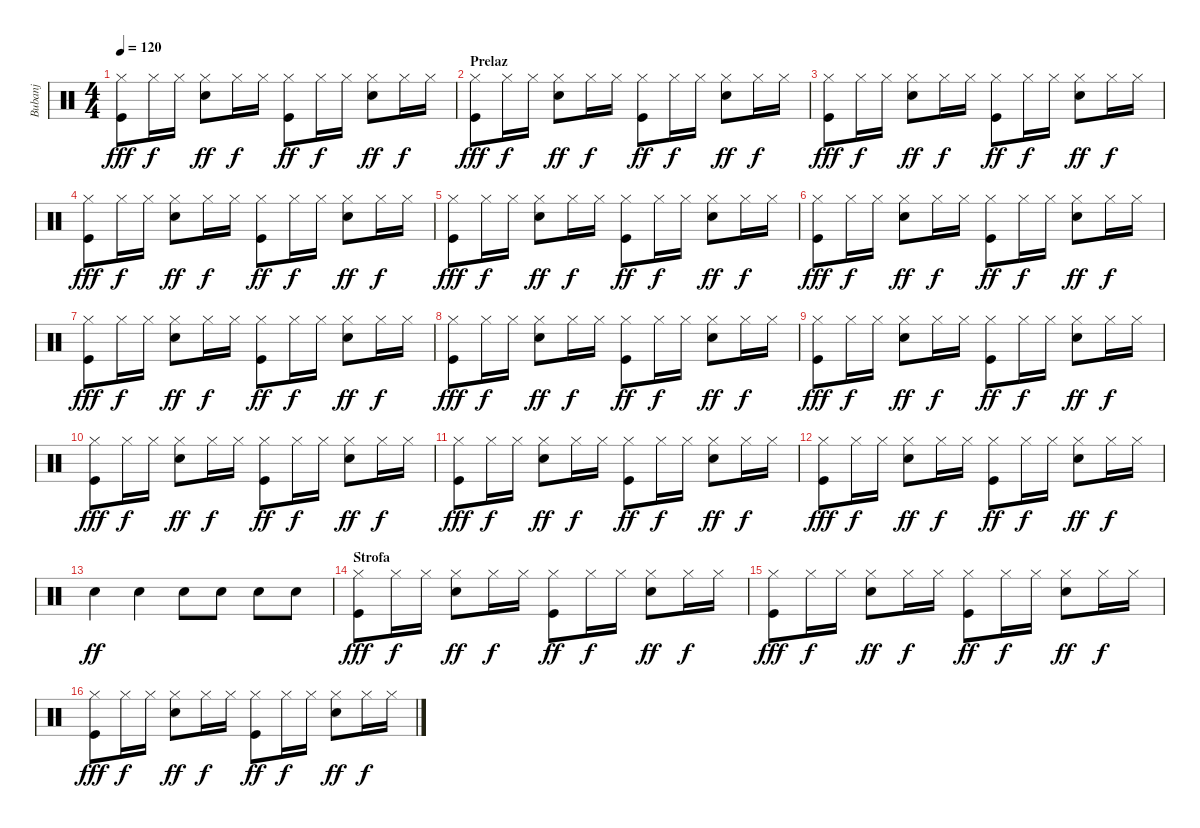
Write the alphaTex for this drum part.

\track ("Bubanj" "Bubanj") {instrument percussion}
\staff {score}
\articulation defaults
\ts (4 4)
\tempo 120
\clef neutral
\ks c
("Kick (hit)" "Hi-Hat (closed)").8{dy fff} "Hi-Hat (closed)".16{dy f} "Hi-Hat (closed)".16 ("Electric Snare (hit)" "Hi-Hat (closed)").8{dy ff} "Hi-Hat (closed)".16{dy f} "Hi-Hat (closed)".16 ("Kick (hit)" "Hi-Hat (closed)").8{dy ff} "Hi-Hat (closed)".16{dy f} "Hi-Hat (closed)".16 ("Electric Snare (hit)" "Hi-Hat (closed)").8{dy ff} "Hi-Hat (closed)".16{dy f} "Hi-Hat (closed)".16 |
\section ("" "Prelaz")
("Kick (hit)" "Hi-Hat (closed)").8{dy fff} "Hi-Hat (closed)".16{dy f} "Hi-Hat (closed)".16 ("Electric Snare (hit)" "Hi-Hat (closed)").8{dy ff} "Hi-Hat (closed)".16{dy f} "Hi-Hat (closed)".16 ("Kick (hit)" "Hi-Hat (closed)").8{dy ff} "Hi-Hat (closed)".16{dy f} "Hi-Hat (closed)".16 ("Electric Snare (hit)" "Hi-Hat (closed)").8{dy ff} "Hi-Hat (closed)".16{dy f} "Hi-Hat (closed)".16 |
("Kick (hit)" "Hi-Hat (closed)").8{dy fff} "Hi-Hat (closed)".16{dy f} "Hi-Hat (closed)".16 ("Electric Snare (hit)" "Hi-Hat (closed)").8{dy ff} "Hi-Hat (closed)".16{dy f} "Hi-Hat (closed)".16 ("Kick (hit)" "Hi-Hat (closed)").8{dy ff} "Hi-Hat (closed)".16{dy f} "Hi-Hat (closed)".16 ("Electric Snare (hit)" "Hi-Hat (closed)").8{dy ff} "Hi-Hat (closed)".16{dy f} "Hi-Hat (closed)".16 |
("Kick (hit)" "Hi-Hat (closed)").8{dy fff} "Hi-Hat (closed)".16{dy f} "Hi-Hat (closed)".16 ("Electric Snare (hit)" "Hi-Hat (closed)").8{dy ff} "Hi-Hat (closed)".16{dy f} "Hi-Hat (closed)".16 ("Kick (hit)" "Hi-Hat (closed)").8{dy ff} "Hi-Hat (closed)".16{dy f} "Hi-Hat (closed)".16 ("Electric Snare (hit)" "Hi-Hat (closed)").8{dy ff} "Hi-Hat (closed)".16{dy f} "Hi-Hat (closed)".16 |
("Kick (hit)" "Hi-Hat (closed)").8{dy fff} "Hi-Hat (closed)".16{dy f} "Hi-Hat (closed)".16 ("Electric Snare (hit)" "Hi-Hat (closed)").8{dy ff} "Hi-Hat (closed)".16{dy f} "Hi-Hat (closed)".16 ("Kick (hit)" "Hi-Hat (closed)").8{dy ff} "Hi-Hat (closed)".16{dy f} "Hi-Hat (closed)".16 ("Electric Snare (hit)" "Hi-Hat (closed)").8{dy ff} "Hi-Hat (closed)".16{dy f} "Hi-Hat (closed)".16 |
("Kick (hit)" "Hi-Hat (closed)").8{dy fff} "Hi-Hat (closed)".16{dy f} "Hi-Hat (closed)".16 ("Electric Snare (hit)" "Hi-Hat (closed)").8{dy ff} "Hi-Hat (closed)".16{dy f} "Hi-Hat (closed)".16 ("Kick (hit)" "Hi-Hat (closed)").8{dy ff} "Hi-Hat (closed)".16{dy f} "Hi-Hat (closed)".16 ("Electric Snare (hit)" "Hi-Hat (closed)").8{dy ff} "Hi-Hat (closed)".16{dy f} "Hi-Hat (closed)".16 |
("Kick (hit)" "Hi-Hat (closed)").8{dy fff} "Hi-Hat (closed)".16{dy f} "Hi-Hat (closed)".16 ("Electric Snare (hit)" "Hi-Hat (closed)").8{dy ff} "Hi-Hat (closed)".16{dy f} "Hi-Hat (closed)".16 ("Kick (hit)" "Hi-Hat (closed)").8{dy ff} "Hi-Hat (closed)".16{dy f} "Hi-Hat (closed)".16 ("Electric Snare (hit)" "Hi-Hat (closed)").8{dy ff} "Hi-Hat (closed)".16{dy f} "Hi-Hat (closed)".16 |
("Kick (hit)" "Hi-Hat (closed)").8{dy fff} "Hi-Hat (closed)".16{dy f} "Hi-Hat (closed)".16 ("Electric Snare (hit)" "Hi-Hat (closed)").8{dy ff} "Hi-Hat (closed)".16{dy f} "Hi-Hat (closed)".16 ("Kick (hit)" "Hi-Hat (closed)").8{dy ff} "Hi-Hat (closed)".16{dy f} "Hi-Hat (closed)".16 ("Electric Snare (hit)" "Hi-Hat (closed)").8{dy ff} "Hi-Hat (closed)".16{dy f} "Hi-Hat (closed)".16 |
("Kick (hit)" "Hi-Hat (closed)").8{dy fff} "Hi-Hat (closed)".16{dy f} "Hi-Hat (closed)".16 ("Electric Snare (hit)" "Hi-Hat (closed)").8{dy ff} "Hi-Hat (closed)".16{dy f} "Hi-Hat (closed)".16 ("Kick (hit)" "Hi-Hat (closed)").8{dy ff} "Hi-Hat (closed)".16{dy f} "Hi-Hat (closed)".16 ("Electric Snare (hit)" "Hi-Hat (closed)").8{dy ff} "Hi-Hat (closed)".16{dy f} "Hi-Hat (closed)".16 |
("Kick (hit)" "Hi-Hat (closed)").8{dy fff} "Hi-Hat (closed)".16{dy f} "Hi-Hat (closed)".16 ("Electric Snare (hit)" "Hi-Hat (closed)").8{dy ff} "Hi-Hat (closed)".16{dy f} "Hi-Hat (closed)".16 ("Kick (hit)" "Hi-Hat (closed)").8{dy ff} "Hi-Hat (closed)".16{dy f} "Hi-Hat (closed)".16 ("Electric Snare (hit)" "Hi-Hat (closed)").8{dy ff} "Hi-Hat (closed)".16{dy f} "Hi-Hat (closed)".16 |
("Kick (hit)" "Hi-Hat (closed)").8{dy fff} "Hi-Hat (closed)".16{dy f} "Hi-Hat (closed)".16 ("Electric Snare (hit)" "Hi-Hat (closed)").8{dy ff} "Hi-Hat (closed)".16{dy f} "Hi-Hat (closed)".16 ("Kick (hit)" "Hi-Hat (closed)").8{dy ff} "Hi-Hat (closed)".16{dy f} "Hi-Hat (closed)".16 ("Electric Snare (hit)" "Hi-Hat (closed)").8{dy ff} "Hi-Hat (closed)".16{dy f} "Hi-Hat (closed)".16 |
("Kick (hit)" "Hi-Hat (closed)").8{dy fff} "Hi-Hat (closed)".16{dy f} "Hi-Hat (closed)".16 ("Electric Snare (hit)" "Hi-Hat (closed)").8{dy ff} "Hi-Hat (closed)".16{dy f} "Hi-Hat (closed)".16 ("Kick (hit)" "Hi-Hat (closed)").8{dy ff} "Hi-Hat (closed)".16{dy f} "Hi-Hat (closed)".16 ("Electric Snare (hit)" "Hi-Hat (closed)").8{dy ff} "Hi-Hat (closed)".16{dy f} "Hi-Hat (closed)".16 |
"Electric Snare (hit)".4{dy ff} "Electric Snare (hit)".4 "Electric Snare (hit)".8 "Electric Snare (hit)".8 "Electric Snare (hit)".8 "Electric Snare (hit)".8 |
\section ("" "Strofa")
("Kick (hit)" "Hi-Hat (closed)").8{dy fff} "Hi-Hat (closed)".16{dy f} "Hi-Hat (closed)".16 ("Electric Snare (hit)" "Hi-Hat (closed)").8{dy ff} "Hi-Hat (closed)".16{dy f} "Hi-Hat (closed)".16 ("Kick (hit)" "Hi-Hat (closed)").8{dy ff} "Hi-Hat (closed)".16{dy f} "Hi-Hat (closed)".16 ("Electric Snare (hit)" "Hi-Hat (closed)").8{dy ff} "Hi-Hat (closed)".16{dy f} "Hi-Hat (closed)".16 |
("Kick (hit)" "Hi-Hat (closed)").8{dy fff} "Hi-Hat (closed)".16{dy f} "Hi-Hat (closed)".16 ("Electric Snare (hit)" "Hi-Hat (closed)").8{dy ff} "Hi-Hat (closed)".16{dy f} "Hi-Hat (closed)".16 ("Kick (hit)" "Hi-Hat (closed)").8{dy ff} "Hi-Hat (closed)".16{dy f} "Hi-Hat (closed)".16 ("Electric Snare (hit)" "Hi-Hat (closed)").8{dy ff} "Hi-Hat (closed)".16{dy f} "Hi-Hat (closed)".16 |
("Kick (hit)" "Hi-Hat (closed)").8{dy fff} "Hi-Hat (closed)".16{dy f} "Hi-Hat (closed)".16 ("Electric Snare (hit)" "Hi-Hat (closed)").8{dy ff} "Hi-Hat (closed)".16{dy f} "Hi-Hat (closed)".16 ("Kick (hit)" "Hi-Hat (closed)").8{dy ff} "Hi-Hat (closed)".16{dy f} "Hi-Hat (closed)".16 ("Electric Snare (hit)" "Hi-Hat (closed)").8{dy ff} "Hi-Hat (closed)".16{dy f} "Hi-Hat (closed)".16
